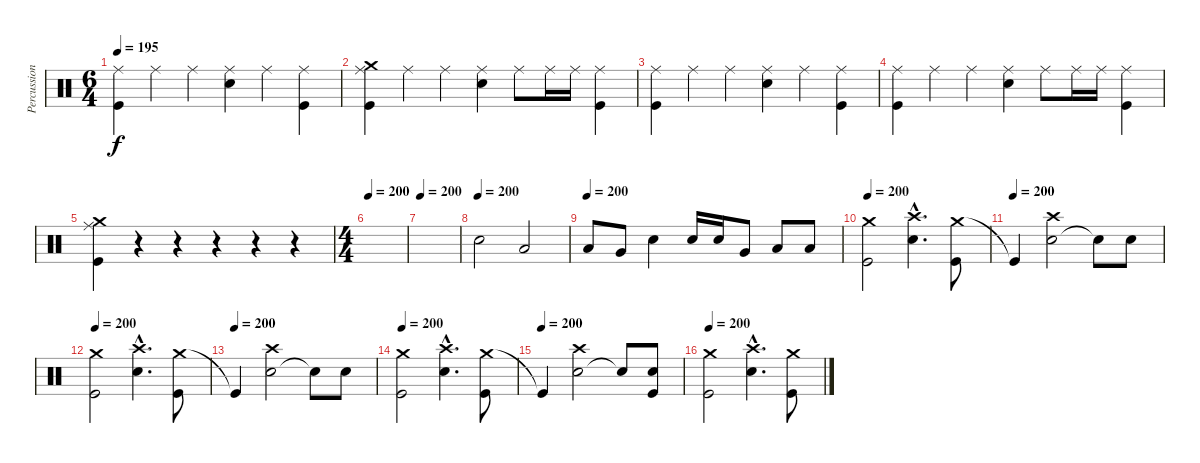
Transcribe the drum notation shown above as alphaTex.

\track ("Percussion" "Percussion") {instrument percussion}
\staff {score}
\articulation defaults
\ts (6 4)
\tempo 195
\clef neutral
\ks c
("Ride (middle)" "Kick (hit)").4{dy f} "Ride (middle)".4 "Ride (middle)".4 ("Ride (middle)" "Electric Snare (hit)").4 "Ride (middle)".4 ("Ride (middle)" "Kick (hit)").4 |
("Crash medium (hit)" "Ride (middle)" "Kick (hit)").4 "Ride (middle)".4 "Ride (middle)".4 ("Ride (middle)" "Electric Snare (hit)").4 "Ride (middle)".8 "Ride (middle)".16 "Ride (middle)".16 ("Ride (middle)" "Kick (hit)").4 |
("Ride (middle)" "Kick (hit)").4 "Ride (middle)".4 "Ride (middle)".4 ("Ride (middle)" "Electric Snare (hit)").4 "Ride (middle)".4 ("Ride (middle)" "Kick (hit)").4 |
("Ride (middle)" "Kick (hit)").4 "Ride (middle)".4 "Ride (middle)".4 ("Ride (middle)" "Electric Snare (hit)").4 "Ride (middle)".8 "Ride (middle)".16 "Ride (middle)".16 ("Ride (middle)" "Kick (hit)").4 |
("Crash medium (hit)" "Ride (middle)" "Kick (hit)").4 r.4 r.4 r.4 r.4 r.4 |
\ts (4 4)
\tempo 200
|
\tempo 200
|
\tempo (200)
"Electric Snare (hit)".2 "Low Floor Tom (hit)".2 |
\tempo (200)
"Low Tom (hit)".8 "Very Low Tom (hit)".8 "Electric Snare (hit)".4 "Electric Snare (hit)".16 "Electric Snare (hit)".16 "Very Low Tom (hit)".8 "Low Floor Tom (hit)".8 "Low Floor Tom (hit)".8 |
\tempo 200
("Crash medium (hit)" "Kick (hit)").2 ("Crash high (hit)"{hac} "Electric Snare (hit)"{hac}).4{d} ("Crash medium (hit)" "Kick (hit)").8 |
\tempo (200)
"Kick (hit)"{t}.4 ("Electric Snare (hit)" "Crash high (hit)").2 "Snare (hit)"{t}.8 "Electric Snare (hit)".8 |
\tempo 200
("Crash medium (hit)" "Kick (hit)").2 ("Crash high (hit)"{hac} "Electric Snare (hit)"{hac}).4{d} ("Crash medium (hit)" "Kick (hit)").8 |
\tempo (200)
"Kick (hit)"{t}.4 ("Electric Snare (hit)" "Crash high (hit)").2 "Snare (hit)"{t}.8 "Electric Snare (hit)".8 |
\tempo 200
("Crash medium (hit)" "Kick (hit)").2 ("Crash high (hit)"{hac} "Electric Snare (hit)"{hac}).4{d} ("Crash medium (hit)" "Kick (hit)").8 |
\tempo (200)
"Kick (hit)"{t}.4 ("Electric Snare (hit)" "Crash high (hit)").2 "Snare (hit)"{t}.8 ("Electric Snare (hit)" "Kick (hit)").8 |
\tempo 200
("Crash medium (hit)" "Kick (hit)").2 ("Crash high (hit)"{hac} "Electric Snare (hit)"{hac}).4{d} ("Crash medium (hit)" "Kick (hit)").8
